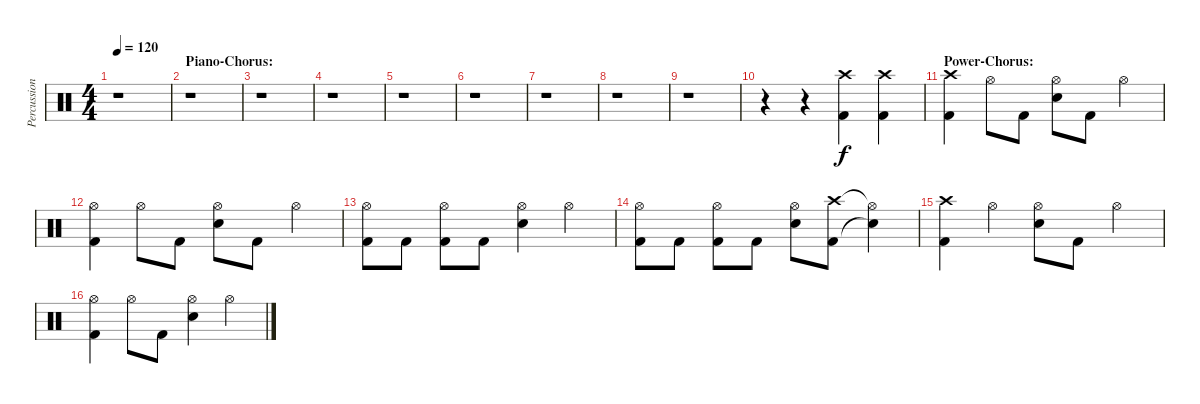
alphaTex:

\track ("Percussion" "Percussion") {instrument percussion}
\staff {score}
\articulation defaults
\ts (4 4)
\tempo 120
\clef neutral
\ks c
r.1{dy f} |
\section ("" "Piano-Chorus:")
r.1 |
r.1 |
r.1 |
r.1 |
r.1 |
r.1 |
r.1 |
r.1 |
r.4 r.4 ("Crash high (hit)" "Kick (hit) 2").4 ("Crash high (hit)" "Kick (hit) 2").4 |
\section ("" "Power-Chorus:")
("Crash high (hit)" "Kick (hit) 2").4 "Hi-Hat (open)".8 "Kick (hit) 2".8 ("Hi-Hat (open)" "Electric Snare (hit)").8 "Kick (hit) 2".8 "Hi-Hat (open)".4 |
("Hi-Hat (open)" "Kick (hit) 2").4 "Hi-Hat (open)".8 "Kick (hit) 2".8 ("Hi-Hat (open)" "Electric Snare (hit)").8 "Kick (hit) 2".8 "Hi-Hat (open)".4 |
("Hi-Hat (open)" "Kick (hit) 2").8 "Kick (hit) 2".8 ("Hi-Hat (open)" "Kick (hit) 2").8 "Kick (hit) 2".8 ("Hi-Hat (open)" "Electric Snare (hit)").4 "Hi-Hat (open)".4 |
("Hi-Hat (open)" "Kick (hit) 2").8 "Kick (hit) 2".8 ("Hi-Hat (open)" "Kick (hit) 2").8 "Kick (hit) 2".8 ("Hi-Hat (open)" "Electric Snare (hit)").8 ("Crash high (hit)" "Kick (hit) 2").8 ("Hi-Hat (open)"{t} "Snare (hit)"{t}).4 |
("Crash high (hit)" "Kick (hit) 2").4 "Hi-Hat (open)".4 ("Hi-Hat (open)" "Electric Snare (hit)").8 "Kick (hit) 2".8 "Hi-Hat (open)".4 |
("Hi-Hat (open)" "Kick (hit) 2").4 "Hi-Hat (open)".8 "Kick (hit) 2".8 ("Hi-Hat (open)" "Electric Snare (hit)").4 "Hi-Hat (open)".4
